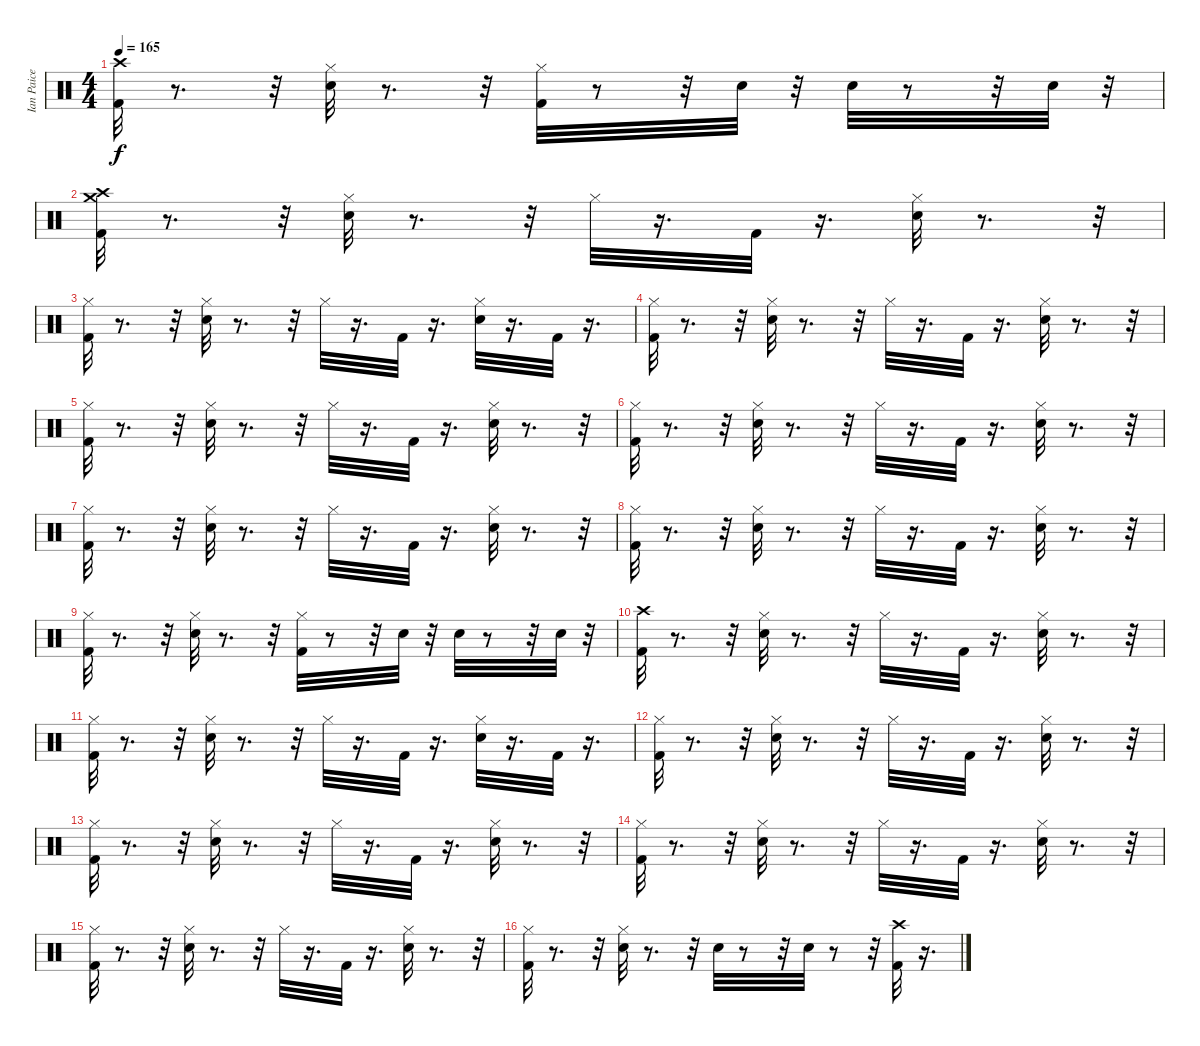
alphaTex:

\track ("Ian Paice" "Ian Paice") {instrument percussion}
\staff {score}
\articulation defaults
\ts (4 4)
\tempo 165
\clef neutral
\ks c
("Kick (hit) 2" "Crash high (hit)").32{dy f} r.8{d} r.32 ("Hi-Hat (closed)" "Snare (hit) 2").32 r.8{d} r.32 ("Hi-Hat (closed)" "Kick (hit) 2").32 r.8 r.32 "Snare (hit) 2".32 r.32 "Snare (hit) 2".32 r.8 r.32 "Snare (hit) 2".32 r.32 |
("Crash medium (hit)" "Crash high (hit)" "Kick (hit) 2").32 r.8{d} r.32 ("Snare (hit) 2" "Hi-Hat (closed)").32 r.8{d} r.32 "Hi-Hat (closed)".32 r.16{d} "Kick (hit) 2".32 r.16{d} ("Snare (hit) 2" "Hi-Hat (closed)").32 r.8{d} r.32 |
("Hi-Hat (closed)" "Kick (hit) 2").32 r.8{d} r.32 ("Hi-Hat (closed)" "Snare (hit) 2").32 r.8{d} r.32 "Hi-Hat (closed)".32 r.16{d} "Kick (hit) 2".32 r.16{d} ("Hi-Hat (closed)" "Snare (hit) 2").32 r.16{d} "Kick (hit) 2".32 r.16{d} |
("Kick (hit) 2" "Hi-Hat (closed)").32 r.8{d} r.32 ("Snare (hit) 2" "Hi-Hat (closed)").32 r.8{d} r.32 "Hi-Hat (closed)".32 r.16{d} "Kick (hit) 2".32 r.16{d} ("Snare (hit) 2" "Hi-Hat (closed)").32 r.8{d} r.32 |
("Kick (hit) 2" "Hi-Hat (closed)").32 r.8{d} r.32 ("Snare (hit) 2" "Hi-Hat (closed)").32 r.8{d} r.32 "Hi-Hat (closed)".32 r.16{d} "Kick (hit) 2".32 r.16{d} ("Snare (hit) 2" "Hi-Hat (closed)").32 r.8{d} r.32 |
("Kick (hit) 2" "Hi-Hat (closed)").32 r.8{d} r.32 ("Snare (hit) 2" "Hi-Hat (closed)").32 r.8{d} r.32 "Hi-Hat (closed)".32 r.16{d} "Kick (hit) 2".32 r.16{d} ("Snare (hit) 2" "Hi-Hat (closed)").32 r.8{d} r.32 |
("Kick (hit) 2" "Hi-Hat (closed)").32 r.8{d} r.32 ("Snare (hit) 2" "Hi-Hat (closed)").32 r.8{d} r.32 "Hi-Hat (closed)".32 r.16{d} "Kick (hit) 2".32 r.16{d} ("Snare (hit) 2" "Hi-Hat (closed)").32 r.8{d} r.32 |
("Kick (hit) 2" "Hi-Hat (closed)").32 r.8{d} r.32 ("Snare (hit) 2" "Hi-Hat (closed)").32 r.8{d} r.32 "Hi-Hat (closed)".32 r.16{d} "Kick (hit) 2".32 r.16{d} ("Snare (hit) 2" "Hi-Hat (closed)").32 r.8{d} r.32 |
("Hi-Hat (closed)" "Kick (hit) 2").32 r.8{d} r.32 ("Hi-Hat (closed)" "Snare (hit) 2").32 r.8{d} r.32 ("Hi-Hat (closed)" "Kick (hit) 2").32 r.8 r.32 "Snare (hit) 2".32 r.32 "Snare (hit) 2".32 r.8 r.32 "Snare (hit) 2".32 r.32 |
("Crash high (hit)" "Kick (hit) 2").32 r.8{d} r.32 ("Snare (hit) 2" "Hi-Hat (closed)").32 r.8{d} r.32 "Hi-Hat (closed)".32 r.16{d} "Kick (hit) 2".32 r.16{d} ("Snare (hit) 2" "Hi-Hat (closed)").32 r.8{d} r.32 |
("Hi-Hat (closed)" "Kick (hit) 2").32 r.8{d} r.32 ("Hi-Hat (closed)" "Snare (hit) 2").32 r.8{d} r.32 "Hi-Hat (closed)".32 r.16{d} "Kick (hit) 2".32 r.16{d} ("Hi-Hat (closed)" "Snare (hit) 2").32 r.16{d} "Kick (hit) 2".32 r.16{d} |
("Hi-Hat (closed)" "Kick (hit) 2").32 r.8{d} r.32 ("Hi-Hat (closed)" "Snare (hit) 2").32 r.8{d} r.32 "Hi-Hat (closed)".32 r.16{d} "Kick (hit) 2".32 r.16{d} ("Hi-Hat (closed)" "Snare (hit) 2").32 r.8{d} r.32 |
("Hi-Hat (closed)" "Kick (hit) 2").32 r.8{d} r.32 ("Hi-Hat (closed)" "Snare (hit) 2").32 r.8{d} r.32 "Hi-Hat (closed)".32 r.16{d} "Kick (hit) 2".32 r.16{d} ("Hi-Hat (closed)" "Snare (hit) 2").32 r.8{d} r.32 |
("Hi-Hat (closed)" "Kick (hit) 2").32 r.8{d} r.32 ("Hi-Hat (closed)" "Snare (hit) 2").32 r.8{d} r.32 "Hi-Hat (closed)".32 r.16{d} "Kick (hit) 2".32 r.16{d} ("Hi-Hat (closed)" "Snare (hit) 2").32 r.8{d} r.32 |
("Hi-Hat (closed)" "Kick (hit) 2").32 r.8{d} r.32 ("Hi-Hat (closed)" "Snare (hit) 2").32 r.8{d} r.32 "Hi-Hat (closed)".32 r.16{d} "Kick (hit) 2".32 r.16{d} ("Hi-Hat (closed)" "Snare (hit) 2").32 r.8{d} r.32 |
("Kick (hit) 2" "Hi-Hat (closed)").32 r.8{d} r.32 ("Snare (hit) 2" "Hi-Hat (closed)").32 r.8{d} r.32 "Snare (hit) 2".32 r.8 r.32 "Snare (hit) 2".32 r.8 r.32 ("Kick (hit) 2" "Crash high (hit)").32 r.16{d}
